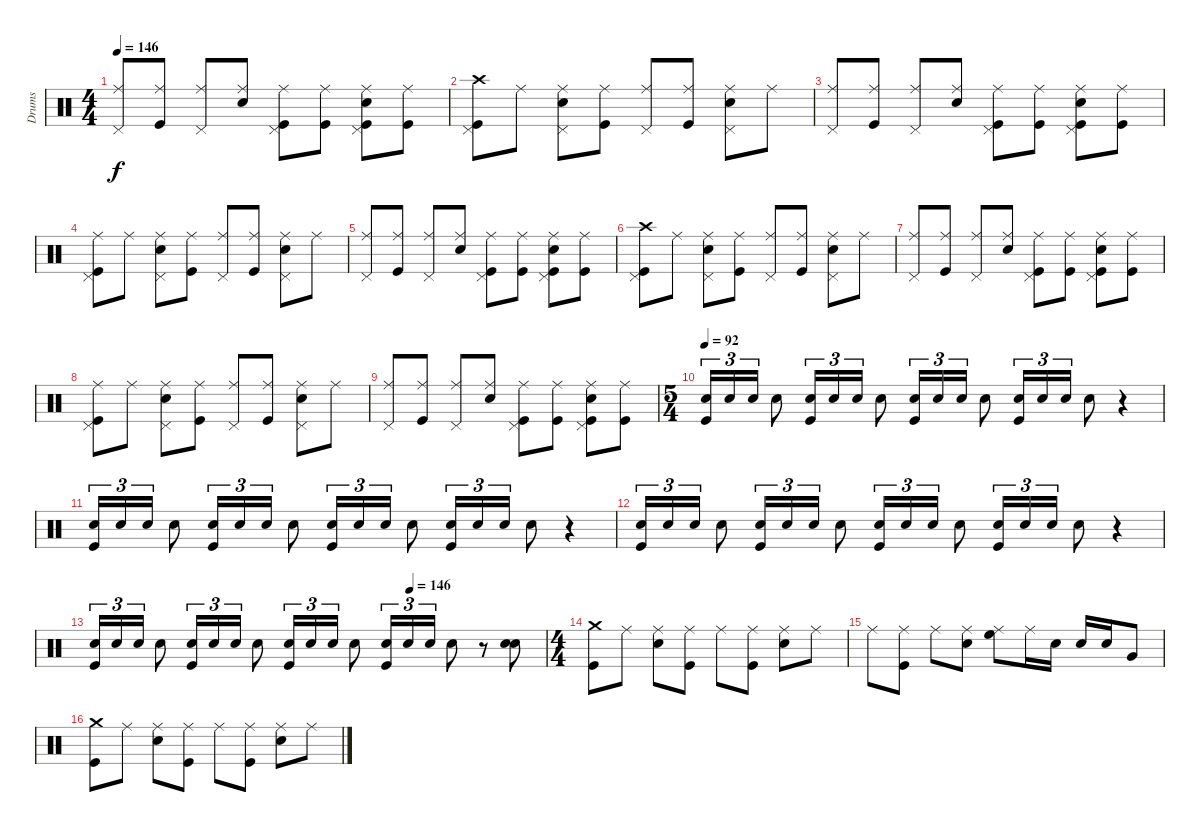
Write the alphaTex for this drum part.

\track ("Drums" "Drums") {instrument percussion}
\staff {score}
\articulation defaults
\ts (4 4)
\tempo 146
\clef neutral
\ks c
("Ride (middle)" "Pedal Hi-Hat (hit)").8{dy f} ("Ride (middle)" "Kick (hit)").8 ("Ride (middle)" "Pedal Hi-Hat (hit)").8 ("Ride (middle)" "Electric Snare (hit)").8 ("Ride (middle)" "Pedal Hi-Hat (hit)" "Kick (hit)").8 ("Ride (middle)" "Kick (hit)").8 ("Ride (middle)" "Pedal Hi-Hat (hit)" "Electric Snare (hit)" "Kick (hit)").8 ("Ride (middle)" "Kick (hit)").8 |
("Crash high (hit)" "Pedal Hi-Hat (hit)" "Kick (hit)").8 "Ride (middle)".8 ("Ride (middle)" "Pedal Hi-Hat (hit)" "Electric Snare (hit)").8 ("Ride (middle)" "Kick (hit)").8 ("Ride (middle)" "Pedal Hi-Hat (hit)").8 ("Ride (middle)" "Kick (hit)").8 ("Ride (middle)" "Pedal Hi-Hat (hit)" "Electric Snare (hit)").8 "Ride (middle)".8 |
("Ride (middle)" "Pedal Hi-Hat (hit)").8 ("Ride (middle)" "Kick (hit)").8 ("Ride (middle)" "Pedal Hi-Hat (hit)").8 ("Ride (middle)" "Electric Snare (hit)").8 ("Ride (middle)" "Pedal Hi-Hat (hit)" "Kick (hit)").8 ("Ride (middle)" "Kick (hit)").8 ("Ride (middle)" "Pedal Hi-Hat (hit)" "Electric Snare (hit)" "Kick (hit)").8 ("Ride (middle)" "Kick (hit)").8 |
("Ride (middle)" "Pedal Hi-Hat (hit)" "Kick (hit)").8 "Ride (middle)".8 ("Ride (middle)" "Pedal Hi-Hat (hit)" "Electric Snare (hit)").8 ("Ride (middle)" "Kick (hit)").8 ("Ride (middle)" "Pedal Hi-Hat (hit)").8 ("Ride (middle)" "Kick (hit)").8 ("Ride (middle)" "Pedal Hi-Hat (hit)" "Electric Snare (hit)").8 "Ride (middle)".8 |
("Ride (middle)" "Pedal Hi-Hat (hit)").8 ("Ride (middle)" "Kick (hit)").8 ("Ride (middle)" "Pedal Hi-Hat (hit)").8 ("Ride (middle)" "Electric Snare (hit)").8 ("Ride (middle)" "Pedal Hi-Hat (hit)" "Kick (hit)").8 ("Ride (middle)" "Kick (hit)").8 ("Ride (middle)" "Pedal Hi-Hat (hit)" "Electric Snare (hit)" "Kick (hit)").8 ("Ride (middle)" "Kick (hit)").8 |
("Crash high (hit)" "Pedal Hi-Hat (hit)" "Kick (hit)").8 "Ride (middle)".8 ("Ride (middle)" "Pedal Hi-Hat (hit)" "Electric Snare (hit)").8 ("Ride (middle)" "Kick (hit)").8 ("Ride (middle)" "Pedal Hi-Hat (hit)").8 ("Ride (middle)" "Kick (hit)").8 ("Ride (middle)" "Pedal Hi-Hat (hit)" "Electric Snare (hit)").8 "Ride (middle)".8 |
("Ride (middle)" "Pedal Hi-Hat (hit)").8 ("Ride (middle)" "Kick (hit)").8 ("Ride (middle)" "Pedal Hi-Hat (hit)").8 ("Ride (middle)" "Electric Snare (hit)").8 ("Ride (middle)" "Pedal Hi-Hat (hit)" "Kick (hit)").8 ("Ride (middle)" "Kick (hit)").8 ("Ride (middle)" "Pedal Hi-Hat (hit)" "Electric Snare (hit)" "Kick (hit)").8 ("Ride (middle)" "Kick (hit)").8 |
("Ride (middle)" "Pedal Hi-Hat (hit)" "Kick (hit)").8 "Ride (middle)".8 ("Ride (middle)" "Pedal Hi-Hat (hit)" "Electric Snare (hit)").8 ("Ride (middle)" "Kick (hit)").8 ("Ride (middle)" "Pedal Hi-Hat (hit)").8 ("Ride (middle)" "Kick (hit)").8 ("Ride (middle)" "Pedal Hi-Hat (hit)" "Electric Snare (hit)").8 "Ride (middle)".8 |
("Ride (middle)" "Pedal Hi-Hat (hit)").8 ("Ride (middle)" "Kick (hit)").8 ("Ride (middle)" "Pedal Hi-Hat (hit)").8 ("Ride (middle)" "Electric Snare (hit)").8 ("Ride (middle)" "Pedal Hi-Hat (hit)" "Kick (hit)").8 ("Ride (middle)" "Kick (hit)").8 ("Ride (middle)" "Pedal Hi-Hat (hit)" "Electric Snare (hit)" "Kick (hit)").8 ("Ride (middle)" "Kick (hit)").8 |
\ts (5 4)
\tempo 92
("Electric Snare (hit)" "Kick (hit)").16{tu (3 2)} "Electric Snare (hit)".16{tu (3 2)} "Electric Snare (hit)".16{tu (3 2)} "Electric Snare (hit)".8 ("Electric Snare (hit)" "Kick (hit)").16{tu (3 2)} "Electric Snare (hit)".16{tu (3 2)} "Electric Snare (hit)".16{tu (3 2)} "Electric Snare (hit)".8 ("Electric Snare (hit)" "Kick (hit)").16{tu (3 2)} "Electric Snare (hit)".16{tu (3 2)} "Electric Snare (hit)".16{tu (3 2)} "Electric Snare (hit)".8 ("Electric Snare (hit)" "Kick (hit)").16{tu (3 2)} "Electric Snare (hit)".16{tu (3 2)} "Electric Snare (hit)".16{tu (3 2)} "Electric Snare (hit)".8 r.4 |
("Electric Snare (hit)" "Kick (hit)").16{tu (3 2)} "Electric Snare (hit)".16{tu (3 2)} "Electric Snare (hit)".16{tu (3 2)} "Electric Snare (hit)".8 ("Electric Snare (hit)" "Kick (hit)").16{tu (3 2)} "Electric Snare (hit)".16{tu (3 2)} "Electric Snare (hit)".16{tu (3 2)} "Electric Snare (hit)".8 ("Electric Snare (hit)" "Kick (hit)").16{tu (3 2)} "Electric Snare (hit)".16{tu (3 2)} "Electric Snare (hit)".16{tu (3 2)} "Electric Snare (hit)".8 ("Electric Snare (hit)" "Kick (hit)").16{tu (3 2)} "Electric Snare (hit)".16{tu (3 2)} "Electric Snare (hit)".16{tu (3 2)} "Electric Snare (hit)".8 r.4 |
("Electric Snare (hit)" "Kick (hit)").16{tu (3 2)} "Electric Snare (hit)".16{tu (3 2)} "Electric Snare (hit)".16{tu (3 2)} "Electric Snare (hit)".8 ("Electric Snare (hit)" "Kick (hit)").16{tu (3 2)} "Electric Snare (hit)".16{tu (3 2)} "Electric Snare (hit)".16{tu (3 2)} "Electric Snare (hit)".8 ("Electric Snare (hit)" "Kick (hit)").16{tu (3 2)} "Electric Snare (hit)".16{tu (3 2)} "Electric Snare (hit)".16{tu (3 2)} "Electric Snare (hit)".8 ("Electric Snare (hit)" "Kick (hit)").16{tu (3 2)} "Electric Snare (hit)".16{tu (3 2)} "Electric Snare (hit)".16{tu (3 2)} "Electric Snare (hit)".8 r.4 |
\tempo (146 0.7)
("Electric Snare (hit)" "Kick (hit)").16{tu (3 2)} "Electric Snare (hit)".16{tu (3 2)} "Electric Snare (hit)".16{tu (3 2)} "Electric Snare (hit)".8 ("Electric Snare (hit)" "Kick (hit)").16{tu (3 2)} "Electric Snare (hit)".16{tu (3 2)} "Electric Snare (hit)".16{tu (3 2)} "Electric Snare (hit)".8 ("Electric Snare (hit)" "Kick (hit)").16{tu (3 2)} "Electric Snare (hit)".16{tu (3 2)} "Electric Snare (hit)".16{tu (3 2)} "Electric Snare (hit)".8 ("Electric Snare (hit)" "Kick (hit)").16{tu (3 2)} "Electric Snare (hit)".16{tu (3 2)} "Electric Snare (hit)".16{tu (3 2)} "Electric Snare (hit)".8 r.8 ("Electric Snare (hit)" "Electric Snare (hit)").8 |
\ts (4 4)
("Crash medium (hit)" "Kick (hit)").8 "Ride (middle)".8 ("Ride (middle)" "Electric Snare (hit)").8 ("Ride (middle)" "Kick (hit)").8 "Ride (middle)".8 ("Ride (middle)" "Kick (hit)").8 ("Ride (middle)" "Electric Snare (hit)").8 "Ride (middle)".8 |
"Ride (middle)".8 ("Ride (middle)" "Kick (hit)").8 "Ride (middle)".8 ("Ride (middle)" "Electric Snare (hit)").8 ("Ride (middle)" "High Floor Tom (hit)").8 "Ride (middle)".16 "Electric Snare (hit)".16 "Electric Snare (hit)".16 "Electric Snare (hit)".16 "Very Low Tom (hit)".8 |
("Crash medium (hit)" "Kick (hit)").8 "Ride (middle)".8 ("Ride (middle)" "Electric Snare (hit)").8 ("Ride (middle)" "Kick (hit)").8 "Ride (middle)".8 ("Ride (middle)" "Kick (hit)").8 ("Ride (middle)" "Electric Snare (hit)").8 "Ride (middle)".8
